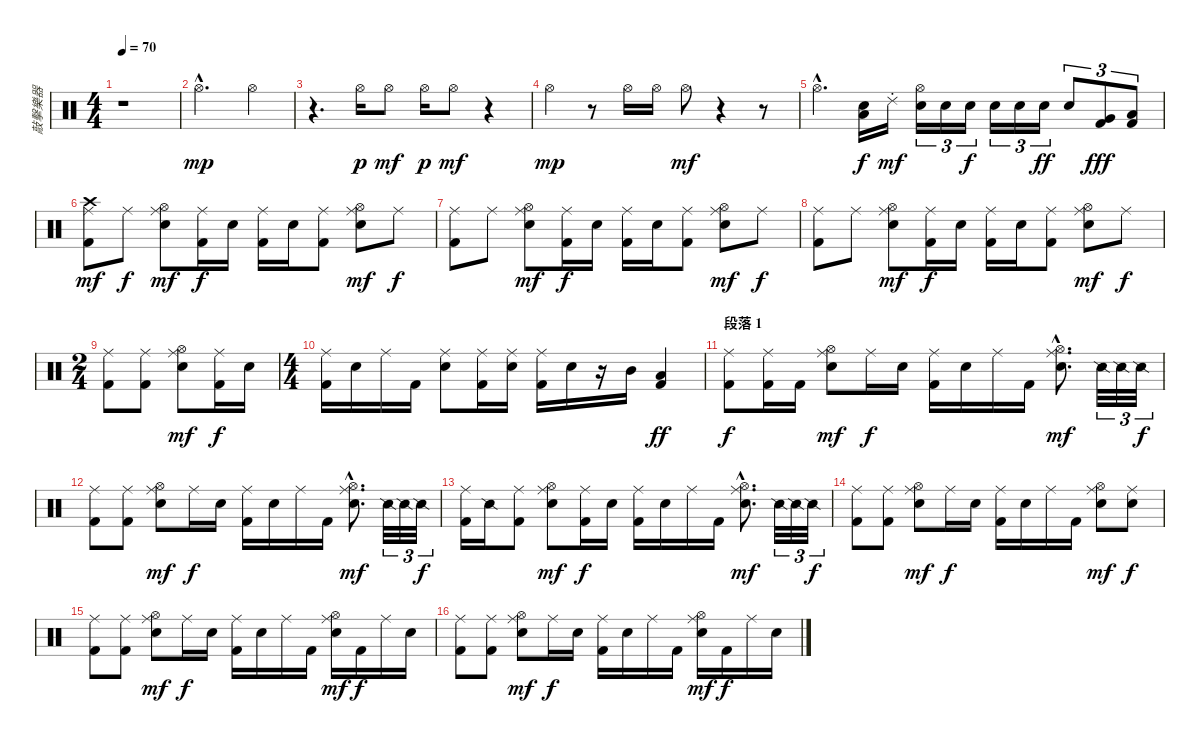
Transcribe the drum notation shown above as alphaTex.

\track ("敲擊樂器" "敲擊樂器") {instrument percussion}
\staff {score}
\articulation defaults
\ts (4 4)
\tempo 70
\clef neutral
\ks c
r.1{dy mp} |
"Hi-Hat (open)"{hac}.2{d} "Hi-Hat (open)".4 |
r.4{d} "Hi-Hat (open)".16{dy p} "Hi-Hat (open)".8{dy mf} "Hi-Hat (open)".16{dy p} "Hi-Hat (open)".8{dy mf} r.4 |
"Hi-Hat (open)".4{dy mp} r.8 "Hi-Hat (open)".16 "Hi-Hat (open)".16 "Hi-Hat (open)".8{dy mf} r.4 r.8 |
"Hi-Hat (open)"{hac}.4{d} ("Low Floor Tom (hit)" "Snare (hit) 2").16{dy f} "Ride (choke) 2".16{dy mf} ("Electric Snare (hit)" "Hi-Hat (open)").16{tu (3 2)} "Electric Snare (hit)".16{tu (3 2)} "Electric Snare (hit)".16{tu (3 2) dy f} "Electric Snare (hit)".16{tu (3 2)} "Snare (hit) 2".16{tu (3 2)} "Snare (hit) 2".16{tu (3 2) dy ff} "Snare (hit) 2".8{tu (3 2)} ("Very Low Tom (hit)" "Kick (hit) 2").8{tu (3 2) dy fff} ("Low Floor Tom (hit)" "Kick (hit) 2").8{tu (3 2)} |
("Ride (middle)" "Crash high (hit)" "Kick (hit) 2").8{dy mf} "Ride (middle)".8{dy f} ("Ride (middle)" "Hi-Hat (open)" "Snare (hit) 2").8{dy mf} ("Ride (middle)" "Kick (hit) 2").16{dy f} "Snare (hit) 2".16 ("Ride (middle)" "Kick (hit) 2").16 "Snare (hit) 2".16 ("Ride (middle)" "Kick (hit) 2").8 ("Ride (middle)" "Hi-Hat (open)" "Snare (hit) 2").8{dy mf} "Ride (middle)".8{dy f} |
("Ride (middle)" "Kick (hit) 2").8 "Ride (middle)".8 ("Ride (middle)" "Hi-Hat (open)" "Snare (hit) 2").8{dy mf} ("Ride (middle)" "Kick (hit) 2").16{dy f} "Snare (hit) 2".16 ("Ride (middle)" "Kick (hit) 2").16 "Snare (hit) 2".16 ("Ride (middle)" "Kick (hit) 2").8 ("Ride (middle)" "Hi-Hat (open)" "Snare (hit) 2").8{dy mf} "Ride (middle)".8{dy f} |
("Ride (middle)" "Kick (hit) 2").8 "Ride (middle)".8 ("Ride (middle)" "Hi-Hat (open)" "Snare (hit) 2").8{dy mf} ("Ride (middle)" "Kick (hit) 2").16{dy f} "Snare (hit) 2".16 ("Ride (middle)" "Kick (hit) 2").16 "Snare (hit) 2".16 ("Ride (middle)" "Kick (hit) 2").8 ("Ride (middle)" "Hi-Hat (open)" "Snare (hit) 2").8{dy mf} "Ride (middle)".8{dy f} |
\ts (2 4)
("Ride (middle)" "Kick (hit) 2").8 ("Ride (middle)" "Kick (hit) 2").8 ("Ride (middle)" "Hi-Hat (open)" "Snare (hit) 2").8{dy mf} ("Ride (middle)" "Kick (hit) 2").16{dy f} "Snare (hit) 2".16 |
\ts (4 4)
("Ride (middle)" "Kick (hit) 2").16 "Snare (hit) 2".16 "Ride (middle)".16 "Kick (hit) 2".16 ("Ride (middle)" "Snare (hit) 2").8 ("Ride (middle)" "Kick (hit) 2").16 ("Ride (middle)" "Snare (hit) 2").16 ("Ride (middle)" "Kick (hit) 2").16 "Snare (hit) 2".16 r.16 "Mid Tom (hit)".16 ("Low Tom (hit)" "Kick (hit) 2").4{dy ff} |
\section ("" "段落 1")
("Ride (middle)" "Kick (hit) 2").8{dy f} ("Ride (middle)" "Kick (hit) 2").16 "Kick (hit) 2".16 ("Ride (middle)" "Hi-Hat (open)" "Snare (hit) 2").8{dy mf} "Ride (middle)".16{dy f} "Snare (hit) 2".16 ("Ride (middle)" "Kick (hit) 2").16 "Snare (hit) 2".16 "Ride (middle)".16 "Kick (hit) 2".16 ("Ride (middle)"{hac} "Hi-Hat (open)"{hac} "Snare (hit) 2"{hac}).8{d dy mf} "Snare (side stick) 2".32{tu (3 2)} "Snare (side stick) 2".32{tu (3 2)} "Snare (side stick) 2".32{tu (3 2) dy f} |
("Ride (middle)" "Kick (hit) 2").8 ("Ride (middle)" "Kick (hit) 2").8 ("Ride (middle)" "Hi-Hat (open)" "Snare (hit) 2").8{dy mf} "Ride (middle)".16{dy f} "Snare (hit) 2".16 ("Ride (middle)" "Kick (hit) 2").16 "Snare (hit) 2".16 "Ride (middle)".16 "Kick (hit) 2".16 ("Ride (middle)"{hac} "Hi-Hat (open)"{hac} "Snare (hit) 2"{hac}).8{d dy mf} "Snare (side stick) 2".32{tu (3 2)} "Snare (side stick) 2".32{tu (3 2)} "Snare (side stick) 2".32{tu (3 2) dy f} |
("Ride (middle)" "Kick (hit) 2").16 "Snare (side stick) 2".16 ("Ride (middle)" "Kick (hit) 2").8 ("Ride (middle)" "Hi-Hat (open)" "Snare (hit) 2").8{dy mf} ("Ride (middle)" "Kick (hit) 2").16{dy f} "Snare (hit) 2".16 ("Ride (middle)" "Kick (hit) 2").16 "Snare (hit) 2".16 "Ride (middle)".16 "Kick (hit) 2".16 ("Ride (middle)"{hac} "Hi-Hat (open)"{hac} "Snare (hit) 2"{hac}).8{d dy mf} "Snare (side stick) 2".32{tu (3 2)} "Snare (side stick) 2".32{tu (3 2)} "Snare (side stick) 2".32{tu (3 2) dy f} |
("Ride (middle)" "Kick (hit) 2").8 ("Ride (middle)" "Kick (hit) 2").8 ("Ride (middle)" "Hi-Hat (open)" "Snare (hit) 2").8{dy mf} "Ride (middle)".16{dy f} "Snare (hit) 2".16 ("Ride (middle)" "Kick (hit) 2").16 "Snare (hit) 2".16 "Ride (middle)".16 "Kick (hit) 2".16 ("Ride (middle)" "Hi-Hat (open)" "Snare (hit) 2").8{dy mf} ("Ride (middle)" "Snare (hit) 2").8{dy f} |
("Ride (middle)" "Kick (hit) 2").8 ("Ride (middle)" "Kick (hit) 2").8 ("Ride (middle)" "Hi-Hat (open)" "Snare (hit) 2").8{dy mf} "Ride (middle)".16{dy f} "Snare (hit) 2".16 ("Ride (middle)" "Kick (hit) 2").16 "Snare (hit) 2".16 "Ride (middle)".16 "Kick (hit) 2".16 ("Ride (middle)" "Hi-Hat (open)" "Snare (hit) 2").16{dy mf} "Kick (hit) 2".16{dy f} "Ride (middle)".16 "Snare (hit) 2".16 |
("Ride (middle)" "Kick (hit) 2").8 ("Ride (middle)" "Kick (hit) 2").8 ("Ride (middle)" "Hi-Hat (open)" "Snare (hit) 2").8{dy mf} "Ride (middle)".16{dy f} "Snare (hit) 2".16 ("Ride (middle)" "Kick (hit) 2").16 "Snare (hit) 2".16 "Ride (middle)".16 "Kick (hit) 2".16 ("Ride (middle)" "Hi-Hat (open)" "Snare (hit) 2").16{dy mf} "Kick (hit) 2".16{dy f} "Ride (middle)".16 "Snare (hit) 2".16
